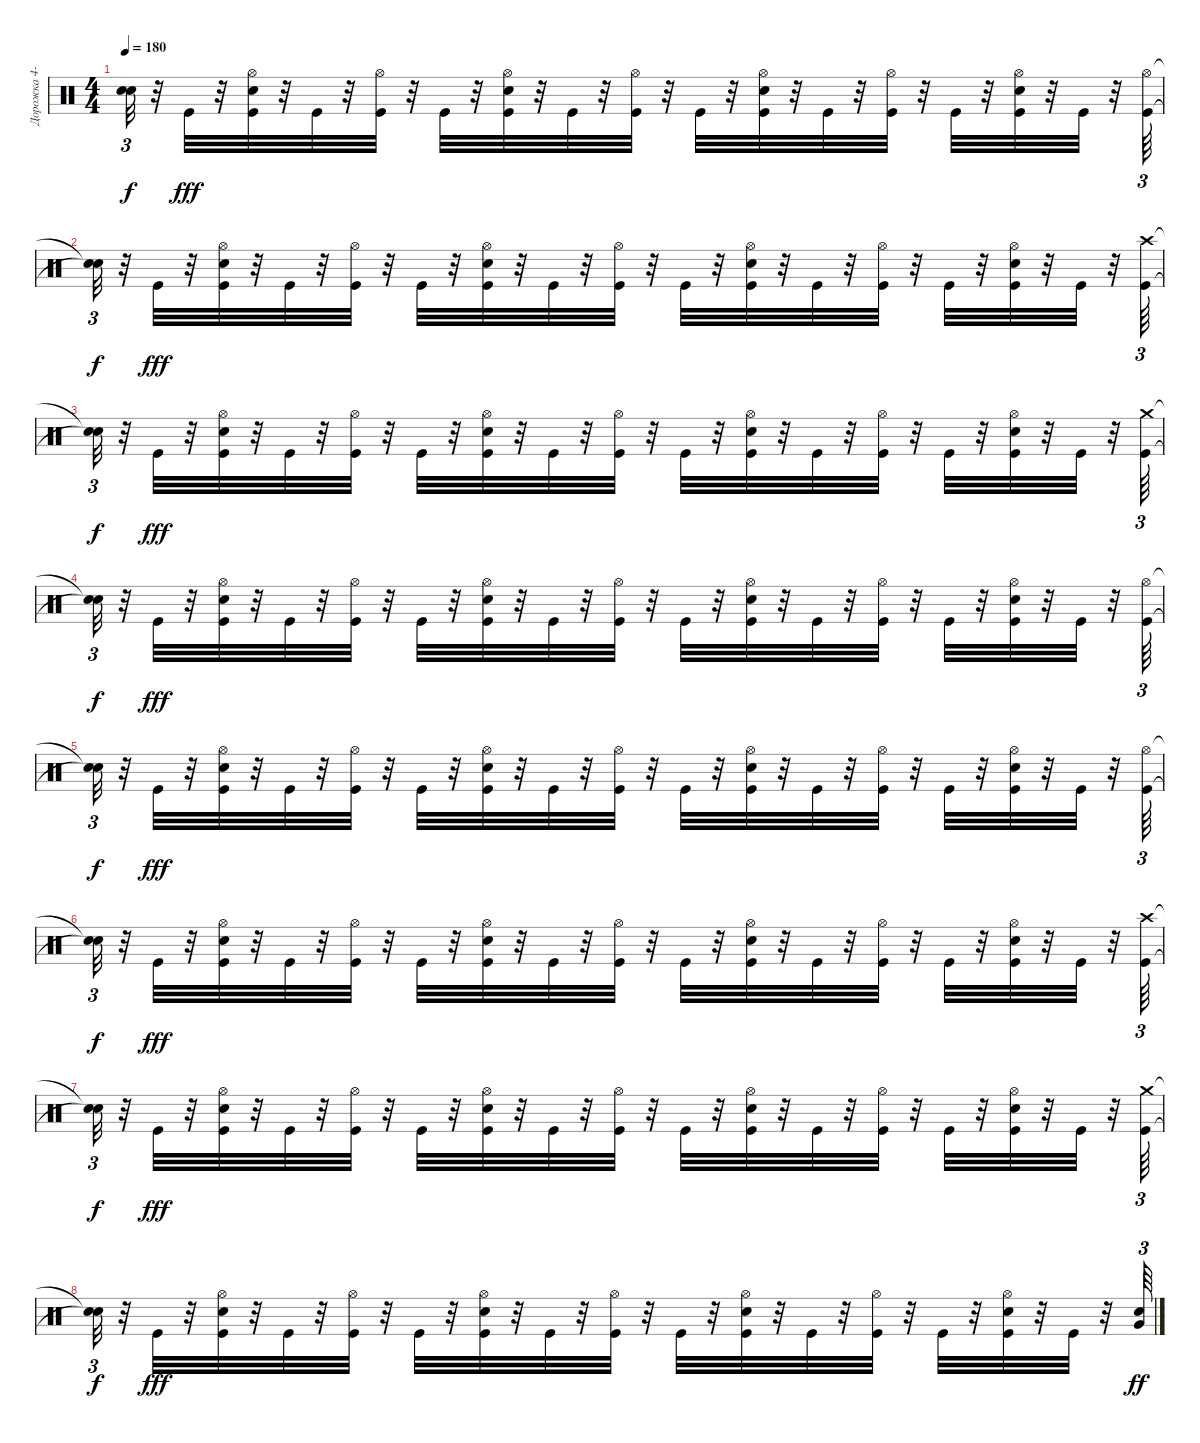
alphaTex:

\track ("Дорожка 4-10-11" "Дорожка 4-") {instrument percussion}
\staff {score}
\articulation defaults
\ts (4 4)
\tempo 180
\clef neutral
\ks c
("Snare (hit)"{t} "Snare (hit)"{t}).32{tu (3 2) dy f} r.32 "Kick (hit)".32{dy fff} r.32 ("Hi-Hat (open)" "Snare (hit) 2" "Kick (hit)").32 r.32 "Kick (hit)".32 r.32 ("Hi-Hat (open)" "Kick (hit)").32 r.32 "Kick (hit)".32 r.32 ("Snare (hit) 2" "Hi-Hat (open)" "Kick (hit)").32 r.32 "Kick (hit)".32 r.32 ("Hi-Hat (open)" "Kick (hit)").32 r.32 "Kick (hit)".32 r.32 ("Hi-Hat (open)" "Snare (hit) 2" "Kick (hit)").32 r.32 "Kick (hit)".32 r.32 ("Hi-Hat (open)" "Kick (hit)").32 r.32 "Kick (hit)".32 r.32 ("Hi-Hat (open)" "Snare (hit) 2" "Kick (hit)").32 r.32 "Kick (hit)".32 r.32 ("Hi-Hat (open)" "Kick (hit)").64{tu (3 2)} |
("Snare (hit)"{t} "Snare (hit)"{t}).32{tu (3 2) dy f} r.32 "Kick (hit)".32{dy fff} r.32 ("Hi-Hat (open)" "Snare (hit) 2" "Kick (hit)").32 r.32 "Kick (hit)".32 r.32 ("Hi-Hat (open)" "Kick (hit)").32 r.32 "Kick (hit)".32 r.32 ("Snare (hit) 2" "Hi-Hat (open)" "Kick (hit)").32 r.32 "Kick (hit)".32 r.32 ("Hi-Hat (open)" "Kick (hit)").32 r.32 "Kick (hit)".32 r.32 ("Hi-Hat (open)" "Snare (hit) 2" "Kick (hit)").32 r.32 "Kick (hit)".32 r.32 ("Hi-Hat (open)" "Kick (hit)").32 r.32 "Kick (hit)".32 r.32 ("Hi-Hat (open)" "Snare (hit) 2" "Kick (hit)").32 r.32 "Kick (hit)".32 r.32 ("Crash high (hit)" "Kick (hit)").64{tu (3 2)} |
("Snare (hit)"{t} "Snare (hit)"{t}).32{tu (3 2) dy f} r.32 "Kick (hit)".32{dy fff} r.32 ("Hi-Hat (open)" "Snare (hit) 2" "Kick (hit)").32 r.32 "Kick (hit)".32 r.32 ("Hi-Hat (open)" "Kick (hit)").32 r.32 "Kick (hit)".32 r.32 ("Snare (hit) 2" "Hi-Hat (open)" "Kick (hit)").32 r.32 "Kick (hit)".32 r.32 ("Hi-Hat (open)" "Kick (hit)").32 r.32 "Kick (hit)".32 r.32 ("Hi-Hat (open)" "Snare (hit) 2" "Kick (hit)").32 r.32 "Kick (hit)".32 r.32 ("Hi-Hat (open)" "Kick (hit)").32 r.32 "Kick (hit)".32 r.32 ("Hi-Hat (open)" "Snare (hit) 2" "Kick (hit)").32 r.32 "Kick (hit)".32 r.32 ("Crash medium (hit)" "Kick (hit)").64{tu (3 2)} |
("Snare (hit)"{t} "Snare (hit)"{t}).32{tu (3 2) dy f} r.32 "Kick (hit)".32{dy fff} r.32 ("Hi-Hat (open)" "Snare (hit) 2" "Kick (hit)").32 r.32 "Kick (hit)".32 r.32 ("Hi-Hat (open)" "Kick (hit)").32 r.32 "Kick (hit)".32 r.32 ("Snare (hit) 2" "Hi-Hat (open)" "Kick (hit)").32 r.32 "Kick (hit)".32 r.32 ("Hi-Hat (open)" "Kick (hit)").32 r.32 "Kick (hit)".32 r.32 ("Hi-Hat (open)" "Snare (hit) 2" "Kick (hit)").32 r.32 "Kick (hit)".32 r.32 ("Hi-Hat (open)" "Kick (hit)").32 r.32 "Kick (hit)".32 r.32 ("Hi-Hat (open)" "Snare (hit) 2" "Kick (hit)").32 r.32 "Kick (hit)".32 r.32 ("Hi-Hat (open)" "Kick (hit)").64{tu (3 2)} |
("Snare (hit)"{t} "Snare (hit)"{t}).32{tu (3 2) dy f} r.32 "Kick (hit)".32{dy fff} r.32 ("Hi-Hat (open)" "Snare (hit) 2" "Kick (hit)").32 r.32 "Kick (hit)".32 r.32 ("Hi-Hat (open)" "Kick (hit)").32 r.32 "Kick (hit)".32 r.32 ("Snare (hit) 2" "Hi-Hat (open)" "Kick (hit)").32 r.32 "Kick (hit)".32 r.32 ("Hi-Hat (open)" "Kick (hit)").32 r.32 "Kick (hit)".32 r.32 ("Hi-Hat (open)" "Snare (hit) 2" "Kick (hit)").32 r.32 "Kick (hit)".32 r.32 ("Hi-Hat (open)" "Kick (hit)").32 r.32 "Kick (hit)".32 r.32 ("Hi-Hat (open)" "Snare (hit) 2" "Kick (hit)").32 r.32 "Kick (hit)".32 r.32 ("Hi-Hat (open)" "Kick (hit)").64{tu (3 2)} |
("Snare (hit)"{t} "Snare (hit)"{t}).32{tu (3 2) dy f} r.32 "Kick (hit)".32{dy fff} r.32 ("Hi-Hat (open)" "Snare (hit) 2" "Kick (hit)").32 r.32 "Kick (hit)".32 r.32 ("Hi-Hat (open)" "Kick (hit)").32 r.32 "Kick (hit)".32 r.32 ("Snare (hit) 2" "Hi-Hat (open)" "Kick (hit)").32 r.32 "Kick (hit)".32 r.32 ("Hi-Hat (open)" "Kick (hit)").32 r.32 "Kick (hit)".32 r.32 ("Hi-Hat (open)" "Snare (hit) 2" "Kick (hit)").32 r.32 "Kick (hit)".32 r.32 ("Hi-Hat (open)" "Kick (hit)").32 r.32 "Kick (hit)".32 r.32 ("Hi-Hat (open)" "Snare (hit) 2" "Kick (hit)").32 r.32 "Kick (hit)".32 r.32 ("Crash high (hit)" "Kick (hit)").64{tu (3 2)} |
("Snare (hit)"{t} "Snare (hit)"{t}).32{tu (3 2) dy f} r.32 "Kick (hit)".32{dy fff} r.32 ("Hi-Hat (open)" "Snare (hit) 2" "Kick (hit)").32 r.32 "Kick (hit)".32 r.32 ("Hi-Hat (open)" "Kick (hit)").32 r.32 "Kick (hit)".32 r.32 ("Snare (hit) 2" "Hi-Hat (open)" "Kick (hit)").32 r.32 "Kick (hit)".32 r.32 ("Hi-Hat (open)" "Kick (hit)").32 r.32 "Kick (hit)".32 r.32 ("Hi-Hat (open)" "Snare (hit) 2" "Kick (hit)").32 r.32 "Kick (hit)".32 r.32 ("Hi-Hat (open)" "Kick (hit)").32 r.32 "Kick (hit)".32 r.32 ("Hi-Hat (open)" "Snare (hit) 2" "Kick (hit)").32 r.32 "Kick (hit)".32 r.32 ("Crash medium (hit)" "Kick (hit)").64{tu (3 2)} |
("Snare (hit)"{t} "Snare (hit)"{t}).32{tu (3 2) dy f} r.32 "Kick (hit)".32{dy fff} r.32 ("Hi-Hat (open)" "Snare (hit) 2" "Kick (hit)").32 r.32 "Kick (hit)".32 r.32 ("Hi-Hat (open)" "Kick (hit)").32 r.32 "Kick (hit)".32 r.32 ("Snare (hit) 2" "Hi-Hat (open)" "Kick (hit)").32 r.32 "Kick (hit)".32 r.32 ("Hi-Hat (open)" "Kick (hit)").32 r.32 "Kick (hit)".32 r.32 ("Hi-Hat (open)" "Snare (hit) 2" "Kick (hit)").32 r.32 "Kick (hit)".32 r.32 ("Hi-Hat (open)" "Kick (hit)").32 r.32 "Kick (hit)".32 r.32 ("Hi-Hat (open)" "Snare (hit) 2" "Kick (hit)").32 r.32 "Kick (hit)".32 r.32 ("Electric Snare (hit)" "Very Low Tom (hit)").64{tu (3 2) dy ff}
